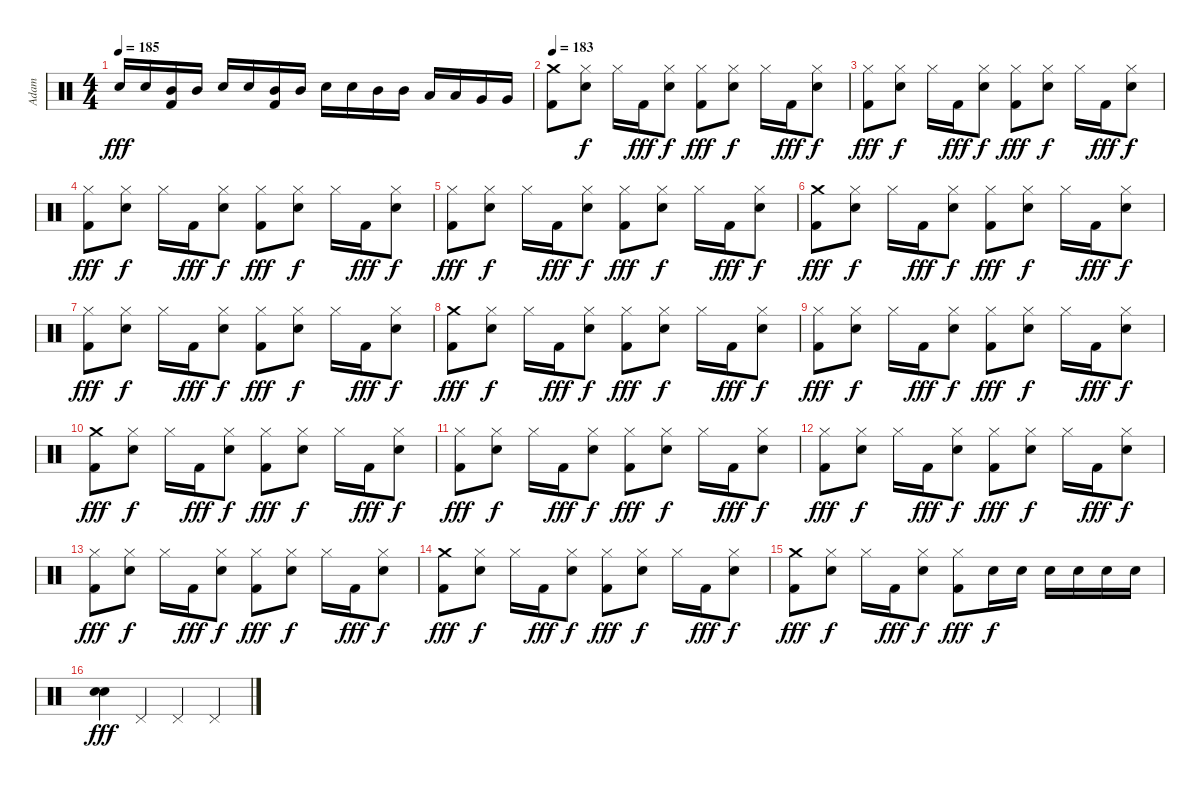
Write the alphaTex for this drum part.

\track ("Adam" "Adam") {instrument percussion}
\staff {score}
\articulation defaults
\ts (4 4)
\tempo 185
\clef neutral
\ks c "Electric Snare (hit)".16{dy fff} "Electric Snare (hit)".16
("Mid Tom (hit)" "Kick (hit) 2").16 "Mid Tom (hit)".16 "Electric Snare (hit)".16 "Electric Snare (hit)".16 ("Mid Tom (hit)" "Kick (hit) 2").16 "Mid Tom (hit)".16 "Electric Snare (hit)".16 "Electric Snare (hit)".16 "Mid Tom (hit)".16 "Mid Tom (hit)".16 "Low Tom (hit)".16 "Low Tom (hit)".16 "Very Low Tom (hit)".16 "Very Low Tom (hit)".16 |
\tempo 183
("Crash medium (hit)" "Kick (hit) 2").8 ("Hi-Hat (closed)" "Electric Snare (hit)").8{dy f} "Hi-Hat (closed)".16 "Kick (hit) 2".16{dy fff} ("Hi-Hat (closed)" "Electric Snare (hit)").8{dy f} ("Hi-Hat (closed)" "Kick (hit) 2").8{dy fff} ("Hi-Hat (closed)" "Electric Snare (hit)").8{dy f} "Hi-Hat (closed)".16 "Kick (hit) 2".16{dy fff} ("Hi-Hat (closed)" "Electric Snare (hit)").8{dy f} |
("Hi-Hat (closed)" "Kick (hit) 2").8{dy fff} ("Hi-Hat (closed)" "Electric Snare (hit)").8{dy f} "Hi-Hat (closed)".16 "Kick (hit) 2".16{dy fff} ("Hi-Hat (closed)" "Electric Snare (hit)").8{dy f} ("Hi-Hat (closed)" "Kick (hit) 2").8{dy fff} ("Hi-Hat (closed)" "Electric Snare (hit)").8{dy f} "Hi-Hat (closed)".16 "Kick (hit) 2".16{dy fff} ("Hi-Hat (closed)" "Electric Snare (hit)").8{dy f} |
("Hi-Hat (closed)" "Kick (hit) 2").8{dy fff} ("Hi-Hat (closed)" "Electric Snare (hit)").8{dy f} "Hi-Hat (closed)".16 "Kick (hit) 2".16{dy fff} ("Hi-Hat (closed)" "Electric Snare (hit)").8{dy f} ("Hi-Hat (closed)" "Kick (hit) 2").8{dy fff} ("Hi-Hat (closed)" "Electric Snare (hit)").8{dy f} "Hi-Hat (closed)".16 "Kick (hit) 2".16{dy fff} ("Hi-Hat (closed)" "Electric Snare (hit)").8{dy f} |
("Hi-Hat (closed)" "Kick (hit) 2").8{dy fff} ("Hi-Hat (closed)" "Electric Snare (hit)").8{dy f} "Hi-Hat (closed)".16 "Kick (hit) 2".16{dy fff} ("Hi-Hat (closed)" "Electric Snare (hit)").8{dy f} ("Hi-Hat (closed)" "Kick (hit) 2").8{dy fff} ("Hi-Hat (closed)" "Electric Snare (hit)").8{dy f} "Hi-Hat (closed)".16 "Kick (hit) 2".16{dy fff} ("Hi-Hat (closed)" "Electric Snare (hit)").8{dy f} |
("Crash medium (hit)" "Kick (hit) 2").8{dy fff} ("Hi-Hat (closed)" "Electric Snare (hit)").8{dy f} "Hi-Hat (closed)".16 "Kick (hit) 2".16{dy fff} ("Hi-Hat (closed)" "Electric Snare (hit)").8{dy f} ("Hi-Hat (closed)" "Kick (hit) 2").8{dy fff} ("Hi-Hat (closed)" "Electric Snare (hit)").8{dy f} "Hi-Hat (closed)".16 "Kick (hit) 2".16{dy fff} ("Hi-Hat (closed)" "Electric Snare (hit)").8{dy f} |
("Hi-Hat (closed)" "Kick (hit) 2").8{dy fff} ("Hi-Hat (closed)" "Electric Snare (hit)").8{dy f} "Hi-Hat (closed)".16 "Kick (hit) 2".16{dy fff} ("Hi-Hat (closed)" "Electric Snare (hit)").8{dy f} ("Hi-Hat (closed)" "Kick (hit) 2").8{dy fff} ("Hi-Hat (closed)" "Electric Snare (hit)").8{dy f} "Hi-Hat (closed)".16 "Kick (hit) 2".16{dy fff} ("Hi-Hat (closed)" "Electric Snare (hit)").8{dy f} |
("Crash medium (hit)" "Kick (hit) 2").8{dy fff} ("Hi-Hat (closed)" "Electric Snare (hit)").8{dy f} "Hi-Hat (closed)".16 "Kick (hit) 2".16{dy fff} ("Hi-Hat (closed)" "Electric Snare (hit)").8{dy f} ("Hi-Hat (closed)" "Kick (hit) 2").8{dy fff} ("Hi-Hat (closed)" "Electric Snare (hit)").8{dy f} "Hi-Hat (closed)".16 "Kick (hit) 2".16{dy fff} ("Hi-Hat (closed)" "Electric Snare (hit)").8{dy f} |
("Hi-Hat (closed)" "Kick (hit) 2").8{dy fff} ("Hi-Hat (closed)" "Electric Snare (hit)").8{dy f} "Hi-Hat (closed)".16 "Kick (hit) 2".16{dy fff} ("Hi-Hat (closed)" "Electric Snare (hit)").8{dy f} ("Hi-Hat (closed)" "Kick (hit) 2").8{dy fff} ("Hi-Hat (closed)" "Electric Snare (hit)").8{dy f} "Hi-Hat (closed)".16 "Kick (hit) 2".16{dy fff} ("Hi-Hat (closed)" "Electric Snare (hit)").8{dy f} |
("Crash medium (hit)" "Kick (hit) 2").8{dy fff} ("Hi-Hat (closed)" "Electric Snare (hit)").8{dy f} "Hi-Hat (closed)".16 "Kick (hit) 2".16{dy fff} ("Hi-Hat (closed)" "Electric Snare (hit)").8{dy f} ("Hi-Hat (closed)" "Kick (hit) 2").8{dy fff} ("Hi-Hat (closed)" "Electric Snare (hit)").8{dy f} "Hi-Hat (closed)".16 "Kick (hit) 2".16{dy fff} ("Hi-Hat (closed)" "Electric Snare (hit)").8{dy f} |
("Hi-Hat (closed)" "Kick (hit) 2").8{dy fff} ("Hi-Hat (closed)" "Electric Snare (hit)").8{dy f} "Hi-Hat (closed)".16 "Kick (hit) 2".16{dy fff} ("Hi-Hat (closed)" "Electric Snare (hit)").8{dy f} ("Hi-Hat (closed)" "Kick (hit) 2").8{dy fff} ("Hi-Hat (closed)" "Electric Snare (hit)").8{dy f} "Hi-Hat (closed)".16 "Kick (hit) 2".16{dy fff} ("Hi-Hat (closed)" "Electric Snare (hit)").8{dy f} |
("Hi-Hat (closed)" "Kick (hit) 2").8{dy fff} ("Hi-Hat (closed)" "Electric Snare (hit)").8{dy f} "Hi-Hat (closed)".16 "Kick (hit) 2".16{dy fff} ("Hi-Hat (closed)" "Electric Snare (hit)").8{dy f} ("Hi-Hat (closed)" "Kick (hit) 2").8{dy fff} ("Hi-Hat (closed)" "Electric Snare (hit)").8{dy f} "Hi-Hat (closed)".16 "Kick (hit) 2".16{dy fff} ("Hi-Hat (closed)" "Electric Snare (hit)").8{dy f} |
("Hi-Hat (closed)" "Kick (hit) 2").8{dy fff} ("Hi-Hat (closed)" "Electric Snare (hit)").8{dy f} "Hi-Hat (closed)".16 "Kick (hit) 2".16{dy fff} ("Hi-Hat (closed)" "Electric Snare (hit)").8{dy f} ("Hi-Hat (closed)" "Kick (hit) 2").8{dy fff} ("Hi-Hat (closed)" "Electric Snare (hit)").8{dy f} "Hi-Hat (closed)".16 "Kick (hit) 2".16{dy fff} ("Hi-Hat (closed)" "Electric Snare (hit)").8{dy f} |
("Crash medium (hit)" "Kick (hit) 2").8{dy fff} ("Hi-Hat (closed)" "Electric Snare (hit)").8{dy f} "Hi-Hat (closed)".16 "Kick (hit) 2".16{dy fff} ("Hi-Hat (closed)" "Electric Snare (hit)").8{dy f} ("Hi-Hat (closed)" "Kick (hit) 2").8{dy fff} ("Hi-Hat (closed)" "Electric Snare (hit)").8{dy f} "Hi-Hat (closed)".16 "Kick (hit) 2".16{dy fff} ("Hi-Hat (closed)" "Electric Snare (hit)").8{dy f} |
("Crash medium (hit)" "Kick (hit) 2").8{dy fff} ("Hi-Hat (closed)" "Electric Snare (hit)").8{dy f} "Hi-Hat (closed)".16 "Kick (hit) 2".16{dy fff} ("Hi-Hat (closed)" "Electric Snare (hit)").8{dy f} ("Hi-Hat (closed)" "Kick (hit) 2").8{dy fff} "Electric Snare (hit)".16{dy f} "Electric Snare (hit)".16 "Electric Snare (hit)".16 "Electric Snare (hit)".16 "Electric Snare (hit)".16 "Electric Snare (hit)".16 |
("Snare (hit) 2" "Electric Snare (hit)").4{dy fff} "Pedal Hi-Hat (hit)".4 "Pedal Hi-Hat (hit)".4 "Pedal Hi-Hat (hit)".4
